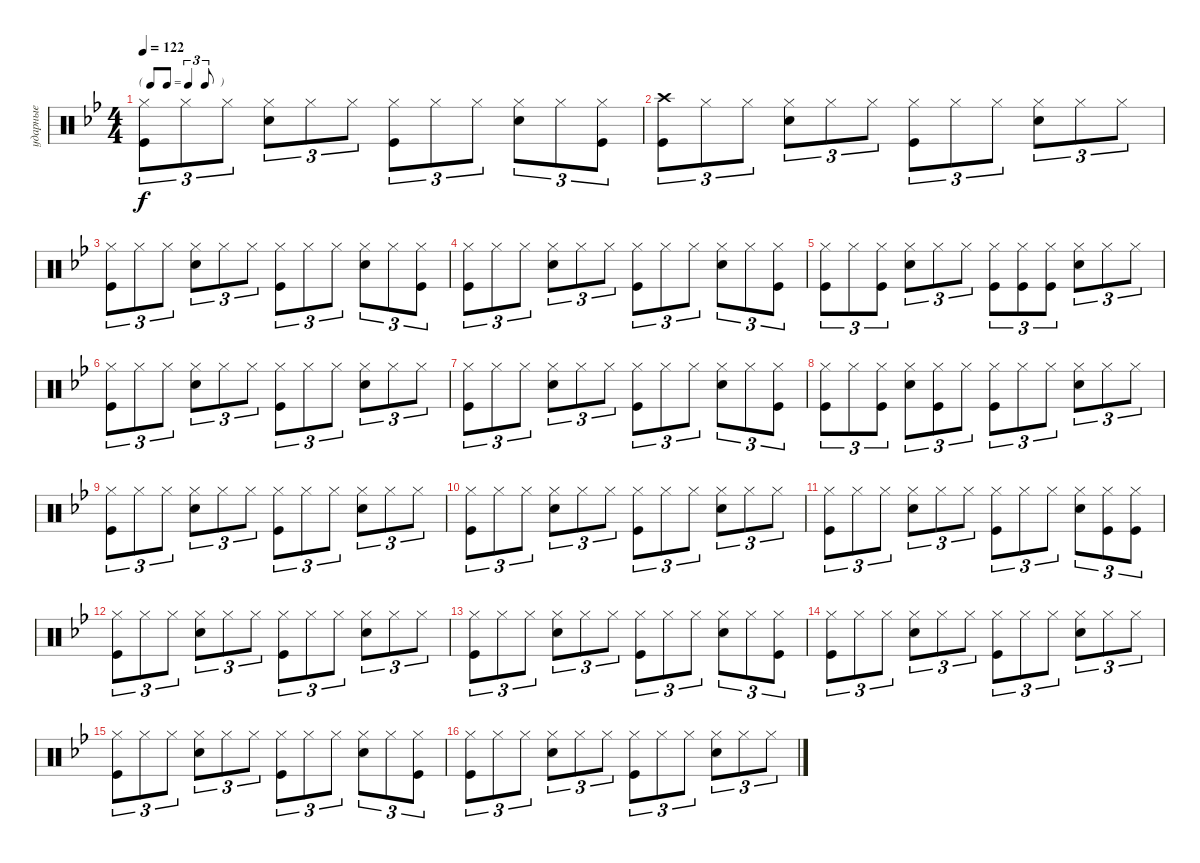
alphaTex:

\track ("ударные" "ударные") {instrument percussion}
\staff {score}
\articulation defaults
\ts (4 4)
\tf triplet8th
\tempo 122
\clef neutral
\ks gminor
("Hi-Hat (closed)" "Kick (hit)").8{tu (3 2) dy f} "Hi-Hat (closed)".8{tu (3 2)} "Hi-Hat (closed)".8{tu (3 2)} ("Hi-Hat (closed)" "Snare (hit) 2").8{tu (3 2)} "Hi-Hat (closed)".8{tu (3 2)} "Hi-Hat (closed)".8{tu (3 2)} ("Hi-Hat (closed)" "Kick (hit)").8{tu (3 2)} "Hi-Hat (closed)".8{tu (3 2)} "Hi-Hat (closed)".8{tu (3 2)} ("Hi-Hat (closed)" "Snare (hit) 2").8{tu (3 2)} "Hi-Hat (closed)".8{tu (3 2)} ("Hi-Hat (closed)" "Kick (hit)").8{tu (3 2)} |
("Kick (hit)" "Crash high (hit)").8{tu (3 2)} "Hi-Hat (closed)".8{tu (3 2)} "Hi-Hat (closed)".8{tu (3 2)} ("Hi-Hat (closed)" "Snare (hit) 2").8{tu (3 2)} "Hi-Hat (closed)".8{tu (3 2)} "Hi-Hat (closed)".8{tu (3 2)} ("Hi-Hat (closed)" "Kick (hit)").8{tu (3 2)} "Hi-Hat (closed)".8{tu (3 2)} "Hi-Hat (closed)".8{tu (3 2)} ("Hi-Hat (closed)" "Snare (hit) 2").8{tu (3 2)} "Hi-Hat (closed)".8{tu (3 2)} "Hi-Hat (closed)".8{tu (3 2)} |
("Hi-Hat (closed)" "Kick (hit)").8{tu (3 2)} "Hi-Hat (closed)".8{tu (3 2)} "Hi-Hat (closed)".8{tu (3 2)} ("Hi-Hat (closed)" "Snare (hit) 2").8{tu (3 2)} "Hi-Hat (closed)".8{tu (3 2)} "Hi-Hat (closed)".8{tu (3 2)} ("Hi-Hat (closed)" "Kick (hit)").8{tu (3 2)} "Hi-Hat (closed)".8{tu (3 2)} "Hi-Hat (closed)".8{tu (3 2)} ("Hi-Hat (closed)" "Snare (hit) 2").8{tu (3 2)} "Hi-Hat (closed)".8{tu (3 2)} ("Hi-Hat (closed)" "Kick (hit)").8{tu (3 2)} |
("Hi-Hat (closed)" "Kick (hit)").8{tu (3 2)} "Hi-Hat (closed)".8{tu (3 2)} "Hi-Hat (closed)".8{tu (3 2)} ("Hi-Hat (closed)" "Snare (hit) 2").8{tu (3 2)} "Hi-Hat (closed)".8{tu (3 2)} "Hi-Hat (closed)".8{tu (3 2)} ("Hi-Hat (closed)" "Kick (hit)").8{tu (3 2)} "Hi-Hat (closed)".8{tu (3 2)} "Hi-Hat (closed)".8{tu (3 2)} ("Hi-Hat (closed)" "Snare (hit) 2").8{tu (3 2)} "Hi-Hat (closed)".8{tu (3 2)} ("Hi-Hat (closed)" "Kick (hit)").8{tu (3 2)} |
("Hi-Hat (closed)" "Kick (hit)").8{tu (3 2)} "Hi-Hat (closed)".8{tu (3 2)} ("Hi-Hat (closed)" "Kick (hit)").8{tu (3 2)} ("Hi-Hat (closed)" "Snare (hit) 2").8{tu (3 2)} "Hi-Hat (closed)".8{tu (3 2)} "Hi-Hat (closed)".8{tu (3 2)} ("Hi-Hat (closed)" "Kick (hit)").8{tu (3 2)} ("Hi-Hat (closed)" "Kick (hit)").8{tu (3 2)} ("Hi-Hat (closed)" "Kick (hit)").8{tu (3 2)} ("Hi-Hat (closed)" "Snare (hit) 2").8{tu (3 2)} "Hi-Hat (closed)".8{tu (3 2)} "Hi-Hat (closed)".8{tu (3 2)} |
("Hi-Hat (closed)" "Kick (hit)").8{tu (3 2)} "Hi-Hat (closed)".8{tu (3 2)} "Hi-Hat (closed)".8{tu (3 2)} ("Hi-Hat (closed)" "Snare (hit) 2").8{tu (3 2)} "Hi-Hat (closed)".8{tu (3 2)} "Hi-Hat (closed)".8{tu (3 2)} ("Hi-Hat (closed)" "Kick (hit)").8{tu (3 2)} "Hi-Hat (closed)".8{tu (3 2)} "Hi-Hat (closed)".8{tu (3 2)} ("Hi-Hat (closed)" "Snare (hit) 2").8{tu (3 2)} "Hi-Hat (closed)".8{tu (3 2)} "Hi-Hat (closed)".8{tu (3 2)} |
("Hi-Hat (closed)" "Kick (hit)").8{tu (3 2)} "Hi-Hat (closed)".8{tu (3 2)} "Hi-Hat (closed)".8{tu (3 2)} ("Hi-Hat (closed)" "Snare (hit) 2").8{tu (3 2)} "Hi-Hat (closed)".8{tu (3 2)} "Hi-Hat (closed)".8{tu (3 2)} ("Hi-Hat (closed)" "Kick (hit)").8{tu (3 2)} "Hi-Hat (closed)".8{tu (3 2)} "Hi-Hat (closed)".8{tu (3 2)} ("Hi-Hat (closed)" "Snare (hit) 2").8{tu (3 2)} "Hi-Hat (closed)".8{tu (3 2)} ("Hi-Hat (closed)" "Kick (hit)").8{tu (3 2)} |
("Hi-Hat (closed)" "Kick (hit)").8{tu (3 2)} "Hi-Hat (closed)".8{tu (3 2)} ("Hi-Hat (closed)" "Kick (hit)").8{tu (3 2)} ("Hi-Hat (closed)" "Snare (hit) 2").8{tu (3 2)} ("Hi-Hat (closed)" "Kick (hit)").8{tu (3 2)} "Hi-Hat (closed)".8{tu (3 2)} ("Hi-Hat (closed)" "Kick (hit)").8{tu (3 2)} "Hi-Hat (closed)".8{tu (3 2)} "Hi-Hat (closed)".8{tu (3 2)} ("Hi-Hat (closed)" "Snare (hit) 2").8{tu (3 2)} "Hi-Hat (closed)".8{tu (3 2)} "Hi-Hat (closed)".8{tu (3 2)} |
("Hi-Hat (closed)" "Kick (hit)").8{tu (3 2)} "Hi-Hat (closed)".8{tu (3 2)} "Hi-Hat (closed)".8{tu (3 2)} ("Hi-Hat (closed)" "Snare (hit) 2").8{tu (3 2)} "Hi-Hat (closed)".8{tu (3 2)} "Hi-Hat (closed)".8{tu (3 2)} ("Hi-Hat (closed)" "Kick (hit)").8{tu (3 2)} "Hi-Hat (closed)".8{tu (3 2)} "Hi-Hat (closed)".8{tu (3 2)} ("Hi-Hat (closed)" "Snare (hit) 2").8{tu (3 2)} "Hi-Hat (closed)".8{tu (3 2)} "Hi-Hat (closed)".8{tu (3 2)} |
("Hi-Hat (closed)" "Kick (hit)").8{tu (3 2)} "Hi-Hat (closed)".8{tu (3 2)} "Hi-Hat (closed)".8{tu (3 2)} ("Hi-Hat (closed)" "Snare (hit) 2").8{tu (3 2)} "Hi-Hat (closed)".8{tu (3 2)} "Hi-Hat (closed)".8{tu (3 2)} ("Hi-Hat (closed)" "Kick (hit)").8{tu (3 2)} "Hi-Hat (closed)".8{tu (3 2)} "Hi-Hat (closed)".8{tu (3 2)} ("Hi-Hat (closed)" "Snare (hit) 2").8{tu (3 2)} "Hi-Hat (closed)".8{tu (3 2)} "Hi-Hat (closed)".8{tu (3 2)} |
("Hi-Hat (closed)" "Kick (hit)").8{tu (3 2)} "Hi-Hat (closed)".8{tu (3 2)} "Hi-Hat (closed)".8{tu (3 2)} ("Hi-Hat (closed)" "Snare (hit) 2").8{tu (3 2)} "Hi-Hat (closed)".8{tu (3 2)} "Hi-Hat (closed)".8{tu (3 2)} ("Hi-Hat (closed)" "Kick (hit)").8{tu (3 2)} "Hi-Hat (closed)".8{tu (3 2)} "Hi-Hat (closed)".8{tu (3 2)} ("Hi-Hat (closed)" "Snare (hit) 2").8{tu (3 2)} ("Hi-Hat (closed)" "Kick (hit)").8{tu (3 2)} ("Hi-Hat (closed)" "Kick (hit)").8{tu (3 2)} |
("Hi-Hat (closed)" "Kick (hit)").8{tu (3 2)} "Hi-Hat (closed)".8{tu (3 2)} "Hi-Hat (closed)".8{tu (3 2)} ("Hi-Hat (closed)" "Snare (hit) 2").8{tu (3 2)} "Hi-Hat (closed)".8{tu (3 2)} "Hi-Hat (closed)".8{tu (3 2)} ("Hi-Hat (closed)" "Kick (hit)").8{tu (3 2)} "Hi-Hat (closed)".8{tu (3 2)} "Hi-Hat (closed)".8{tu (3 2)} ("Hi-Hat (closed)" "Snare (hit) 2").8{tu (3 2)} "Hi-Hat (closed)".8{tu (3 2)} "Hi-Hat (closed)".8{tu (3 2)} |
("Hi-Hat (closed)" "Kick (hit)").8{tu (3 2)} "Hi-Hat (closed)".8{tu (3 2)} "Hi-Hat (closed)".8{tu (3 2)} ("Hi-Hat (closed)" "Snare (hit) 2").8{tu (3 2)} "Hi-Hat (closed)".8{tu (3 2)} "Hi-Hat (closed)".8{tu (3 2)} ("Hi-Hat (closed)" "Kick (hit)").8{tu (3 2)} "Hi-Hat (closed)".8{tu (3 2)} "Hi-Hat (closed)".8{tu (3 2)} ("Hi-Hat (closed)" "Snare (hit) 2").8{tu (3 2)} "Hi-Hat (closed)".8{tu (3 2)} ("Hi-Hat (closed)" "Kick (hit)").8{tu (3 2)} |
("Hi-Hat (closed)" "Kick (hit)").8{tu (3 2)} "Hi-Hat (closed)".8{tu (3 2)} "Hi-Hat (closed)".8{tu (3 2)} ("Hi-Hat (closed)" "Snare (hit) 2").8{tu (3 2)} "Hi-Hat (closed)".8{tu (3 2)} "Hi-Hat (closed)".8{tu (3 2)} ("Hi-Hat (closed)" "Kick (hit)").8{tu (3 2)} "Hi-Hat (closed)".8{tu (3 2)} "Hi-Hat (closed)".8{tu (3 2)} ("Hi-Hat (closed)" "Snare (hit) 2").8{tu (3 2)} "Hi-Hat (closed)".8{tu (3 2)} "Hi-Hat (closed)".8{tu (3 2)} |
("Hi-Hat (closed)" "Kick (hit)").8{tu (3 2)} "Hi-Hat (closed)".8{tu (3 2)} "Hi-Hat (closed)".8{tu (3 2)} ("Hi-Hat (closed)" "Snare (hit) 2").8{tu (3 2)} "Hi-Hat (closed)".8{tu (3 2)} "Hi-Hat (closed)".8{tu (3 2)} ("Hi-Hat (closed)" "Kick (hit)").8{tu (3 2)} "Hi-Hat (closed)".8{tu (3 2)} "Hi-Hat (closed)".8{tu (3 2)} ("Hi-Hat (closed)" "Snare (hit) 2").8{tu (3 2)} "Hi-Hat (closed)".8{tu (3 2)} ("Hi-Hat (closed)" "Kick (hit)").8{tu (3 2)} |
("Hi-Hat (closed)" "Kick (hit)").8{tu (3 2)} "Hi-Hat (closed)".8{tu (3 2)} "Hi-Hat (closed)".8{tu (3 2)} ("Hi-Hat (closed)" "Snare (hit) 2").8{tu (3 2)} "Hi-Hat (closed)".8{tu (3 2)} "Hi-Hat (closed)".8{tu (3 2)} ("Hi-Hat (closed)" "Kick (hit)").8{tu (3 2)} "Hi-Hat (closed)".8{tu (3 2)} "Hi-Hat (closed)".8{tu (3 2)} ("Hi-Hat (closed)" "Snare (hit) 2").8{tu (3 2)} "Hi-Hat (closed)".8{tu (3 2)} "Hi-Hat (closed)".8{tu (3 2)}
